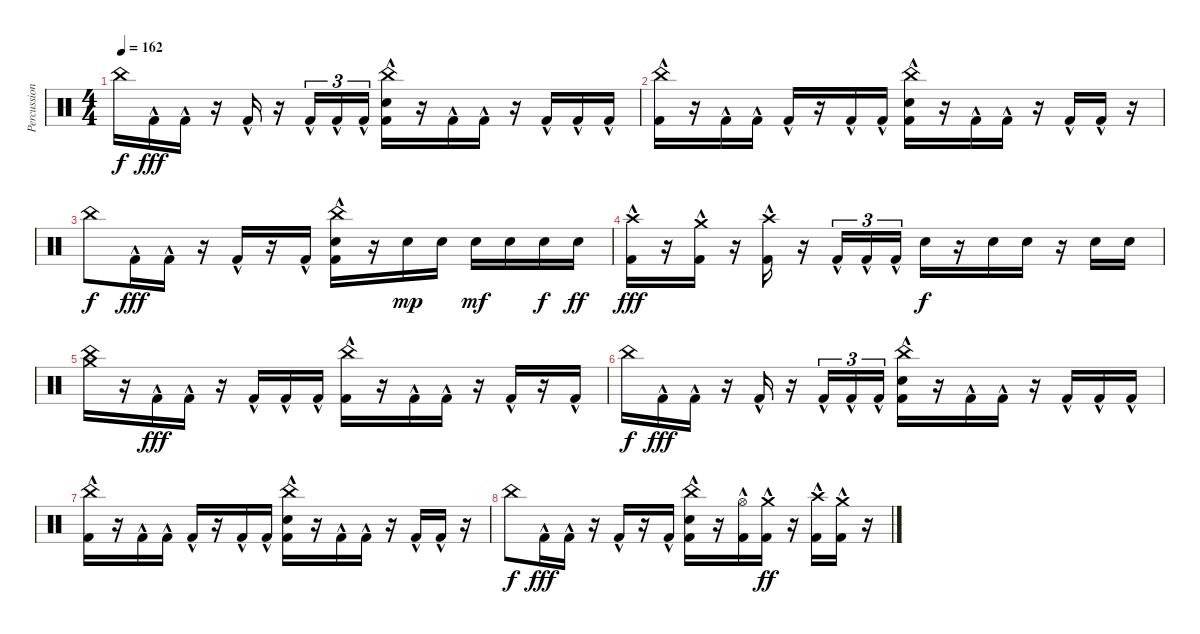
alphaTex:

\track ("Percussion" "Percussion") {instrument percussion}
\staff {score}
\articulation defaults
\ts (4 4)
\tempo 162
\clef neutral
\ks c "China (hit)".16{dy f} "Kick (hit) 2"{hac}.16{dy fff} "Kick (hit) 2"{hac}.16
r.16 "Kick (hit) 2"{hac}.16 r.16 "Kick (hit) 2"{hac}.16{tu (3 2)} "Kick (hit) 2"{hac}.16{tu (3 2)} "Kick (hit) 2"{hac}.16{tu (3 2)} ("Kick (hit) 2"{hac} "China (hit)" "Electric Snare (hit)").16 r.16 "Kick (hit) 2"{hac}.16 "Kick (hit) 2"{hac}.16 r.16 "Kick (hit) 2"{hac}.16 "Kick (hit) 2"{hac}.16 "Kick (hit) 2"{hac}.16 |
("Kick (hit) 2"{hac} "China (hit)").16 r.16 "Kick (hit) 2"{hac}.16 "Kick (hit) 2"{hac}.16 "Kick (hit) 2"{hac}.16 r.16 "Kick (hit) 2"{hac}.16 "Kick (hit) 2"{hac}.16 ("Kick (hit) 2"{hac} "China (hit)" "Electric Snare (hit)").16 r.16 "Kick (hit) 2"{hac}.16 "Kick (hit) 2"{hac}.16 r.16 "Kick (hit) 2"{hac}.16 "Kick (hit) 2"{hac}.16 r.16 |
"China (hit)".8{dy f} "Kick (hit) 2"{hac}.16{dy fff} "Kick (hit) 2"{hac}.16 r.16 "Kick (hit) 2"{hac}.16 r.16 "Kick (hit) 2"{hac}.16 ("Kick (hit) 2"{hac} "China (hit)" "Electric Snare (hit)").16 r.16 "Electric Snare (hit)".16{dy mp} "Electric Snare (hit)".16 "Electric Snare (hit)".16{dy mf} "Electric Snare (hit)".16 "Electric Snare (hit)".16{dy f} "Electric Snare (hit)".16{dy ff} |
("Kick (hit) 2"{hac} "Crash high (hit)").16{dy fff} r.16 ("Kick (hit) 2"{hac} "Crash medium (hit)").16 r.16 ("Kick (hit) 2"{hac} "Crash high (hit)").16 r.16 "Kick (hit) 2"{hac}.16{tu (3 2)} "Kick (hit) 2"{hac}.16{tu (3 2)} "Kick (hit) 2"{hac}.16{tu (3 2)} "Electric Snare (hit)".16{dy f} r.16 "Electric Snare (hit)".16 "Electric Snare (hit)".16 r.16 "Electric Snare (hit)".16 "Electric Snare (hit)".16 |
("China (hit)" "Crash medium (hit)").16 r.16 "Kick (hit) 2"{hac}.16{dy fff} "Kick (hit) 2"{hac}.16 r.16 "Kick (hit) 2"{hac}.16 "Kick (hit) 2"{hac}.16 "Kick (hit) 2"{hac}.16 ("Kick (hit) 2"{hac} "China (hit)").16 r.16 "Kick (hit) 2"{hac}.16 "Kick (hit) 2"{hac}.16 r.16 "Kick (hit) 2"{hac}.16 r.16 "Kick (hit) 2"{hac}.16 |
"China (hit)".16{dy f} "Kick (hit) 2"{hac}.16{dy fff} "Kick (hit) 2"{hac}.16 r.16 "Kick (hit) 2"{hac}.16 r.16 "Kick (hit) 2"{hac}.16{tu (3 2)} "Kick (hit) 2"{hac}.16{tu (3 2)} "Kick (hit) 2"{hac}.16{tu (3 2)} ("Kick (hit) 2"{hac} "China (hit)" "Electric Snare (hit)").16 r.16 "Kick (hit) 2"{hac}.16 "Kick (hit) 2"{hac}.16 r.16 "Kick (hit) 2"{hac}.16 "Kick (hit) 2"{hac}.16 "Kick (hit) 2"{hac}.16 |
("Kick (hit) 2"{hac} "China (hit)").16 r.16 "Kick (hit) 2"{hac}.16 "Kick (hit) 2"{hac}.16 "Kick (hit) 2"{hac}.16 r.16 "Kick (hit) 2"{hac}.16 "Kick (hit) 2"{hac}.16 ("Kick (hit) 2"{hac} "China (hit)" "Electric Snare (hit)").16 r.16 "Kick (hit) 2"{hac}.16 "Kick (hit) 2"{hac}.16 r.16 "Kick (hit) 2"{hac}.16 "Kick (hit) 2"{hac}.16 r.16 |
"China (hit)".8{dy f} "Kick (hit) 2"{hac}.16{dy fff} "Kick (hit) 2"{hac}.16 r.16 "Kick (hit) 2"{hac}.16 r.16 "Kick (hit) 2"{hac}.16 ("Kick (hit) 2"{hac} "China (hit)" "Electric Snare (hit)").16 r.16 ("Kick (hit) 2"{hac} "Hi-Hat (open)").16 ("Kick (hit) 2"{hac} "Crash medium (hit)").16{dy ff} r.16 ("Kick (hit) 2"{hac} "Crash high (hit)").16 ("Kick (hit) 2"{hac} "Crash medium (hit)").16 r.16
